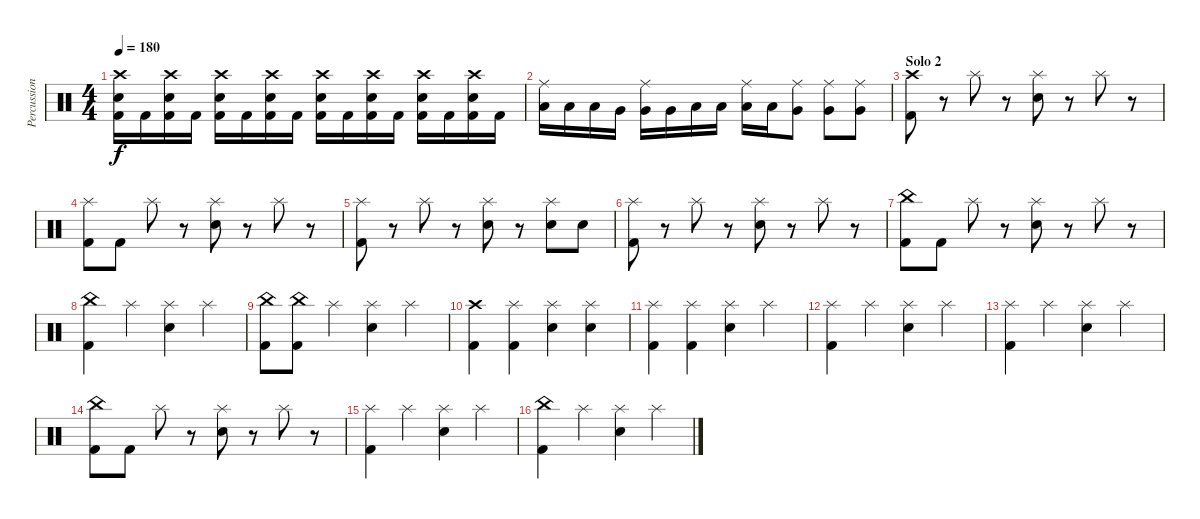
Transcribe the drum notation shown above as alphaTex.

\track ("Percussion" "Percussion") {instrument percussion}
\staff {score}
\articulation defaults
\ts (4 4)
\tempo 180
\clef neutral
\ks c
("Crash high (hit)" "Snare (hit) 2" "Kick (hit) 2").16{dy f} "Kick (hit) 2".16 ("Crash high (hit)" "Snare (hit) 2" "Kick (hit) 2").16 "Kick (hit) 2".16 ("Crash high (hit)" "Snare (hit) 2" "Kick (hit) 2").16 "Kick (hit) 2".16 ("Crash high (hit)" "Snare (hit) 2" "Kick (hit) 2").16 "Kick (hit) 2".16 ("Crash high (hit)" "Snare (hit) 2" "Kick (hit) 2").16 "Kick (hit) 2".16 ("Crash high (hit)" "Snare (hit) 2" "Kick (hit) 2").16 "Kick (hit) 2".16 ("Crash high (hit)" "Snare (hit) 2" "Kick (hit) 2").16 "Kick (hit) 2".16 ("Crash high (hit)" "Snare (hit) 2" "Kick (hit) 2").16 "Kick (hit) 2".16 |
("Ride (middle)" "Low Tom (hit)").16 "Low Tom (hit)".16 "Low Tom (hit)".16 "Very Low Tom (hit)".16 ("Ride (middle)" "Very Low Tom (hit)").16 "Very Low Tom (hit)".16 "Low Floor Tom (hit)".16 "Low Floor Tom (hit)".16 ("Ride (middle)" "Low Floor Tom (hit)").16 "Low Floor Tom (hit)".16 ("Ride (middle)" "Very Low Tom (hit)").8 ("Ride (middle)" "Very Low Tom (hit)").8 ("Ride (middle)" "Very Low Tom (hit)").8 |
\section ("" "Solo 2")
("Crash high (hit)" "Kick (hit) 2").8 r.8 "Splash (hit)".8 r.8 ("Splash (hit)" "Snare (hit) 2").8 r.8 "Splash (hit)".8 r.8 |
("Splash (hit)" "Kick (hit) 2").8 "Kick (hit) 2".8 "Splash (hit)".8 r.8 ("Splash (hit)" "Snare (hit) 2").8 r.8 "Splash (hit)".8 r.8 |
("Splash (hit)" "Kick (hit) 2").8 r.8 "Splash (hit)".8 r.8 ("Splash (hit)" "Snare (hit) 2").8 r.8 ("Splash (hit)" "Snare (hit) 2").8 "Snare (hit) 2".8 |
("Splash (hit)" "Kick (hit) 2").8 r.8 "Splash (hit)".8 r.8 ("Splash (hit)" "Snare (hit) 2").8 r.8 "Splash (hit)".8 r.8 |
("China (hit)" "Kick (hit) 2").8 "Kick (hit) 2".8 "Splash (hit)".8 r.8 ("Splash (hit)" "Snare (hit) 2").8 r.8 "Splash (hit)".8 r.8 |
("China (hit)" "Kick (hit) 2").4 "Splash (hit)".4 ("Splash (hit)" "Snare (hit) 2").4 "Splash (hit)".4 |
("China (hit)" "Kick (hit) 2").8 ("China (hit)" "Kick (hit) 2").8 "Splash (hit)".4 ("Splash (hit)" "Snare (hit) 2").4 "Splash (hit)".4 |
("Crash high (hit)" "Kick (hit) 2").4 ("Splash (hit)" "Kick (hit) 2").4 ("Splash (hit)" "Snare (hit) 2").4 ("Splash (hit)" "Snare (hit) 2").4 |
("Splash (hit)" "Kick (hit) 2").4 ("Splash (hit)" "Kick (hit) 2").4 ("Splash (hit)" "Snare (hit) 2").4 "Splash (hit)".4 |
("Splash (hit)" "Kick (hit) 2").4 "Splash (hit)".4 ("Splash (hit)" "Snare (hit) 2").4 "Splash (hit)".4 |
("Splash (hit)" "Kick (hit) 2").4 "Splash (hit)".4 ("Splash (hit)" "Snare (hit) 2").4 "Splash (hit)".4 |
("China (hit)" "Kick (hit) 2").8 "Kick (hit) 2".8 "Splash (hit)".8 r.8 ("Splash (hit)" "Snare (hit) 2").8 r.8 "Splash (hit)".8 r.8 |
("Splash (hit)" "Kick (hit) 2").4 "Splash (hit)".4 ("Splash (hit)" "Snare (hit) 2").4 "Splash (hit)".4 |
("China (hit)" "Kick (hit) 2").4 "Splash (hit)".4 ("Splash (hit)" "Snare (hit) 2").4 "Splash (hit)".4
